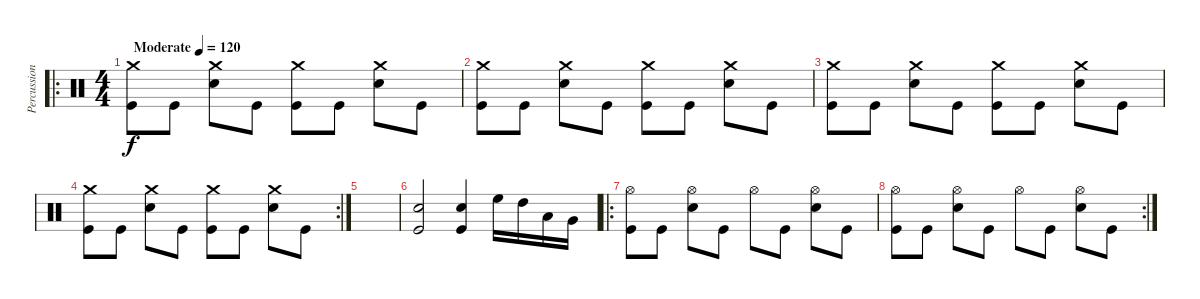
\track ("Percussion" "Percussion") {instrument percussion}
\staff {score}
\articulation defaults
\ro
\ts (4 4)
\tempo (120 "Moderate")
\clef neutral
\ks c
("Crash medium (hit)" "Kick (hit)").8{dy f} "Kick (hit)".8 ("Crash medium (hit)" "Snare (hit) 2").8 "Kick (hit)".8 ("Crash medium (hit)" "Kick (hit)").8 "Kick (hit)".8 ("Crash medium (hit)" "Snare (hit) 2").8 "Kick (hit)".8 |
("Crash medium (hit)" "Kick (hit)").8 "Kick (hit)".8 ("Crash medium (hit)" "Snare (hit) 2").8 "Kick (hit)".8 ("Crash medium (hit)" "Kick (hit)").8 "Kick (hit)".8 ("Crash medium (hit)" "Snare (hit) 2").8 "Kick (hit)".8 |
("Crash medium (hit)" "Kick (hit)").8 "Kick (hit)".8 ("Crash medium (hit)" "Snare (hit) 2").8 "Kick (hit)".8 ("Crash medium (hit)" "Kick (hit)").8 "Kick (hit)".8 ("Crash medium (hit)" "Snare (hit) 2").8 "Kick (hit)".8 |
\rc 2
("Crash medium (hit)" "Kick (hit)").8 "Kick (hit)".8 ("Crash medium (hit)" "Snare (hit) 2").8 "Kick (hit)".8 ("Crash medium (hit)" "Kick (hit)").8 "Kick (hit)".8 ("Crash medium (hit)" "Snare (hit) 2").8 "Kick (hit)".8 |
|
("Snare (hit) 2" "Kick (hit)").2 ("Snare (hit) 2" "Kick (hit)").4 "High Floor Tom (hit)".16 "High Tom (hit)".16 "Low Tom (hit)".16 "Very Low Tom (hit)".16 |
\ro
("Hi-Hat (open)" "Kick (hit)").8 "Kick (hit)".8 ("Hi-Hat (open)" "Snare (hit) 2").8 "Kick (hit)".8 "Hi-Hat (open)".8 "Kick (hit)".8 ("Hi-Hat (open)" "Snare (hit) 2").8 "Kick (hit)".8 |
\rc 2
("Hi-Hat (open)" "Kick (hit)").8 "Kick (hit)".8 ("Hi-Hat (open)" "Snare (hit) 2").8 "Kick (hit)".8 "Hi-Hat (open)".8 "Kick (hit)".8 ("Hi-Hat (open)" "Snare (hit) 2").8 "Kick (hit)".8
